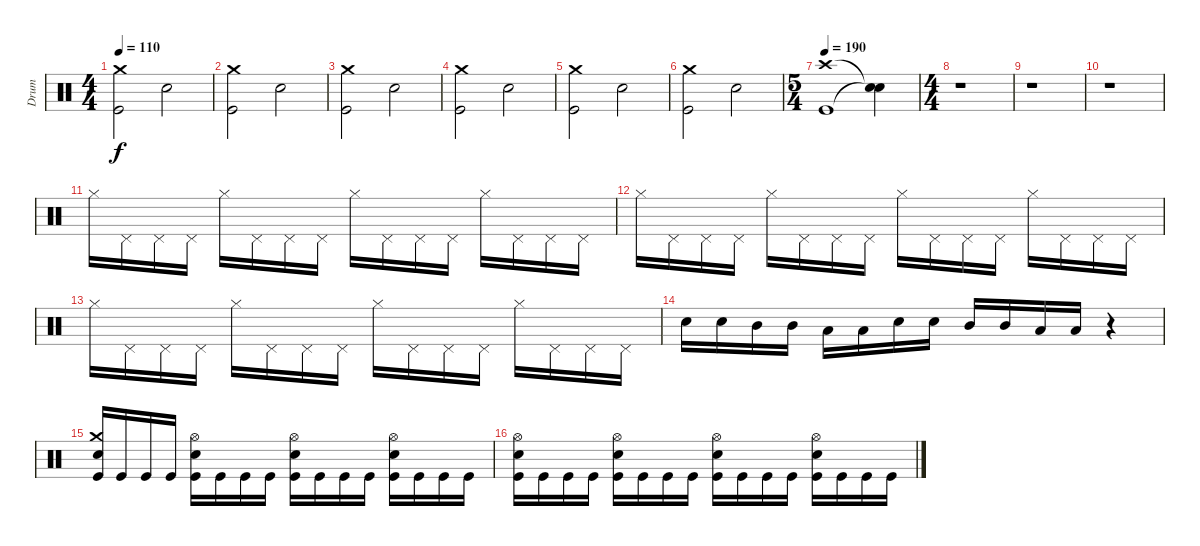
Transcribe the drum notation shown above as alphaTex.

\track ("Drum" "Drum") {instrument percussion}
\staff {score}
\articulation defaults
\ts (4 4)
\tempo 110
\clef neutral
\ks c
("Kick (hit)" "Crash medium (hit)").2{dy f} "Electric Snare (hit)".2 |
("Kick (hit)" "Crash medium (hit)").2 "Electric Snare (hit)".2 |
("Kick (hit)" "Crash medium (hit)").2 "Electric Snare (hit)".2 |
("Kick (hit)" "Crash medium (hit)").2 "Electric Snare (hit)".2 |
("Kick (hit)" "Crash medium (hit)").2 "Electric Snare (hit)".2 |
("Kick (hit)" "Crash medium (hit)").2 "Electric Snare (hit)".2 |
\ts (5 4)
\tempo 190
("Kick (hit)" "Crash high (hit)").1 ("Snare (hit)"{t} "Snare (hit)"{t}).4 |
\ts (4 4)
r.1 |
r.1 |
r.1 |
"Hi-Hat (closed)".16 "Pedal Hi-Hat (hit)".16 "Pedal Hi-Hat (hit)".16 "Pedal Hi-Hat (hit)".16 "Hi-Hat (closed)".16 "Pedal Hi-Hat (hit)".16 "Pedal Hi-Hat (hit)".16 "Pedal Hi-Hat (hit)".16 "Hi-Hat (closed)".16 "Pedal Hi-Hat (hit)".16 "Pedal Hi-Hat (hit)".16 "Pedal Hi-Hat (hit)".16 "Hi-Hat (closed)".16 "Pedal Hi-Hat (hit)".16 "Pedal Hi-Hat (hit)".16 "Pedal Hi-Hat (hit)".16 |
"Hi-Hat (closed)".16 "Pedal Hi-Hat (hit)".16 "Pedal Hi-Hat (hit)".16 "Pedal Hi-Hat (hit)".16 "Hi-Hat (closed)".16 "Pedal Hi-Hat (hit)".16 "Pedal Hi-Hat (hit)".16 "Pedal Hi-Hat (hit)".16 "Hi-Hat (closed)".16 "Pedal Hi-Hat (hit)".16 "Pedal Hi-Hat (hit)".16 "Pedal Hi-Hat (hit)".16 "Hi-Hat (closed)".16 "Pedal Hi-Hat (hit)".16 "Pedal Hi-Hat (hit)".16 "Pedal Hi-Hat (hit)".16 |
"Hi-Hat (closed)".16 "Pedal Hi-Hat (hit)".16 "Pedal Hi-Hat (hit)".16 "Pedal Hi-Hat (hit)".16 "Hi-Hat (closed)".16 "Pedal Hi-Hat (hit)".16 "Pedal Hi-Hat (hit)".16 "Pedal Hi-Hat (hit)".16 "Hi-Hat (closed)".16 "Pedal Hi-Hat (hit)".16 "Pedal Hi-Hat (hit)".16 "Pedal Hi-Hat (hit)".16 "Hi-Hat (closed)".16 "Pedal Hi-Hat (hit)".16 "Pedal Hi-Hat (hit)".16 "Pedal Hi-Hat (hit)".16 |
"Electric Snare (hit)".16 "Electric Snare (hit)".16 "Mid Tom (hit)".16 "Mid Tom (hit)".16 "Low Tom (hit)".16 "Low Tom (hit)".16 "Electric Snare (hit)".16 "Electric Snare (hit)".16 "Mid Tom (hit)".16 "Mid Tom (hit)".16 "Low Tom (hit)".16 "Low Tom (hit)".16 r.4 |
("Kick (hit)" "Electric Snare (hit)" "Crash medium (hit)").16 "Kick (hit)".16 "Kick (hit)".16 "Kick (hit)".16 ("Kick (hit)" "Electric Snare (hit)" "Hi-Hat (open)").16 "Kick (hit)".16 "Kick (hit)".16 "Kick (hit)".16 ("Kick (hit)" "Electric Snare (hit)" "Hi-Hat (open)").16 "Kick (hit)".16 "Kick (hit)".16 "Kick (hit)".16 ("Kick (hit)" "Electric Snare (hit)" "Hi-Hat (open)").16 "Kick (hit)".16 "Kick (hit)".16 "Kick (hit)".16 |
("Kick (hit)" "Electric Snare (hit)" "Hi-Hat (open)").16 "Kick (hit)".16 "Kick (hit)".16 "Kick (hit)".16 ("Kick (hit)" "Electric Snare (hit)" "Hi-Hat (open)").16 "Kick (hit)".16 "Kick (hit)".16 "Kick (hit)".16 ("Kick (hit)" "Electric Snare (hit)" "Hi-Hat (open)").16 "Kick (hit)".16 "Kick (hit)".16 "Kick (hit)".16 ("Kick (hit)" "Electric Snare (hit)" "Hi-Hat (open)").16 "Kick (hit)".16 "Kick (hit)".16 "Kick (hit)".16
